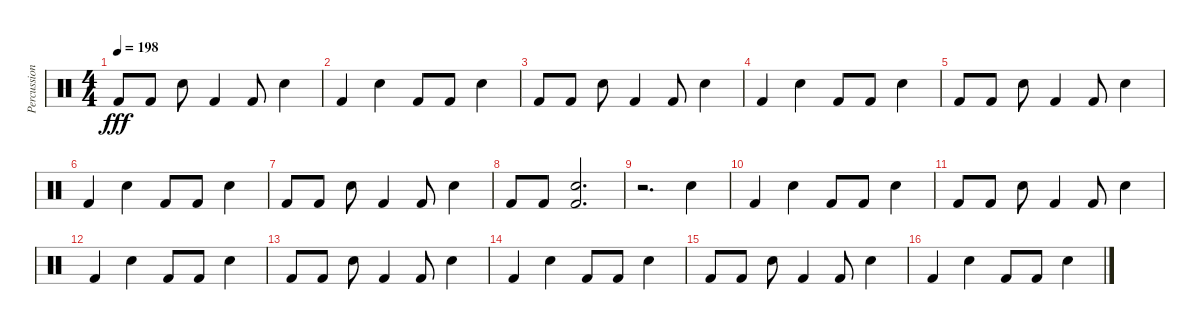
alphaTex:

\track ("Percussion" "Percussion") {instrument percussion}
\staff {score}
\articulation defaults
\ts (4 4)
\tempo 198
\clef neutral
\ks c "Kick (hit) 2".8{dy fff} "Kick (hit) 2".8 "Electric Snare (hit)".8 "Kick (hit) 2".4 "Kick (hit) 2".8 "Electric Snare (hit)".4
|
"Kick (hit) 2".4 "Electric Snare (hit)".4 "Kick (hit) 2".8 "Kick (hit) 2".8 "Electric Snare (hit)".4 |
"Kick (hit) 2".8 "Kick (hit) 2".8 "Electric Snare (hit)".8 "Kick (hit) 2".4 "Kick (hit) 2".8 "Electric Snare (hit)".4 |
"Kick (hit) 2".4 "Electric Snare (hit)".4 "Kick (hit) 2".8 "Kick (hit) 2".8 "Electric Snare (hit)".4 |
"Kick (hit) 2".8 "Kick (hit) 2".8 "Electric Snare (hit)".8 "Kick (hit) 2".4 "Kick (hit) 2".8 "Electric Snare (hit)".4 |
"Kick (hit) 2".4 "Electric Snare (hit)".4 "Kick (hit) 2".8 "Kick (hit) 2".8 "Electric Snare (hit)".4 |
"Kick (hit) 2".8 "Kick (hit) 2".8 "Electric Snare (hit)".8 "Kick (hit) 2".4 "Kick (hit) 2".8 "Electric Snare (hit)".4 |
"Kick (hit) 2".8 "Kick (hit) 2".8 ("Electric Snare (hit)" "Kick (hit) 2").2{d} |
r.2{d} "Electric Snare (hit)".4 |
"Kick (hit) 2".4 "Electric Snare (hit)".4 "Kick (hit) 2".8 "Kick (hit) 2".8 "Electric Snare (hit)".4 |
"Kick (hit) 2".8 "Kick (hit) 2".8 "Electric Snare (hit)".8 "Kick (hit) 2".4 "Kick (hit) 2".8 "Electric Snare (hit)".4 |
"Kick (hit) 2".4 "Electric Snare (hit)".4 "Kick (hit) 2".8 "Kick (hit) 2".8 "Electric Snare (hit)".4 |
"Kick (hit) 2".8 "Kick (hit) 2".8 "Electric Snare (hit)".8 "Kick (hit) 2".4 "Kick (hit) 2".8 "Electric Snare (hit)".4 |
"Kick (hit) 2".4 "Electric Snare (hit)".4 "Kick (hit) 2".8 "Kick (hit) 2".8 "Electric Snare (hit)".4 |
"Kick (hit) 2".8 "Kick (hit) 2".8 "Electric Snare (hit)".8 "Kick (hit) 2".4 "Kick (hit) 2".8 "Electric Snare (hit)".4 |
"Kick (hit) 2".4 "Electric Snare (hit)".4 "Kick (hit) 2".8 "Kick (hit) 2".8 "Electric Snare (hit)".4
